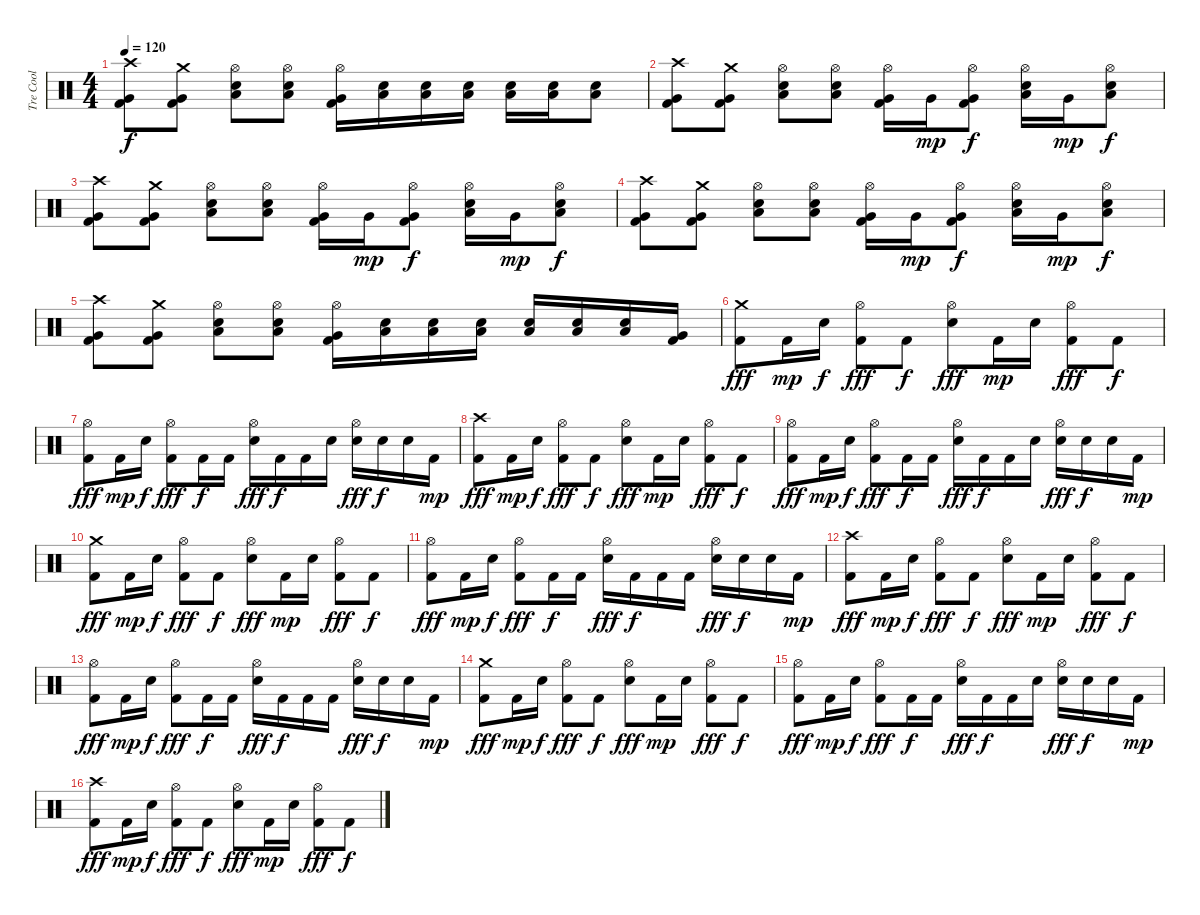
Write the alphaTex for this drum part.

\track ("Tre Cool" "Tre Cool") {instrument percussion}
\staff {score}
\articulation defaults
\ts (4 4)
\tempo 120
\clef neutral
\ks c
("Kick (hit) 2" "Very Low Tom (hit)" "Crash high (hit)").8{dy f} ("Kick (hit) 2" "Very Low Tom (hit)" "Crash medium (hit)").8 ("Snare (hit) 2" "Low Floor Tom (hit)" "Hi-Hat (open)").8 ("Snare (hit) 2" "Low Floor Tom (hit)" "Hi-Hat (open)").8 ("Kick (hit) 2" "Very Low Tom (hit)" "Hi-Hat (open)").16 ("Electric Snare (hit)" "Low Floor Tom (hit)").16 ("Electric Snare (hit)" "Low Floor Tom (hit)").16 ("Electric Snare (hit)" "Low Floor Tom (hit)").16 ("Electric Snare (hit)" "Low Floor Tom (hit)").16 ("Electric Snare (hit)" "Low Floor Tom (hit)").16 ("Electric Snare (hit)" "Low Floor Tom (hit)").8 |
("Kick (hit) 2" "Very Low Tom (hit)" "Crash high (hit)").8 ("Kick (hit) 2" "Very Low Tom (hit)" "Crash medium (hit)").8 ("Snare (hit) 2" "Low Floor Tom (hit)" "Hi-Hat (open)").8 ("Snare (hit) 2" "Low Floor Tom (hit)" "Hi-Hat (open)").8 ("Kick (hit) 2" "Very Low Tom (hit)" "Hi-Hat (open)").16 "Very Low Tom (hit)".16{dy mp} ("Kick (hit) 2" "Very Low Tom (hit)" "Hi-Hat (open)").8{dy f} ("Snare (hit) 2" "Low Floor Tom (hit)" "Hi-Hat (open)").16 "Very Low Tom (hit)".16{dy mp} ("Snare (hit) 2" "Low Floor Tom (hit)" "Hi-Hat (open)").8{dy f} |
("Kick (hit) 2" "Very Low Tom (hit)" "Crash high (hit)").8 ("Kick (hit) 2" "Very Low Tom (hit)" "Crash medium (hit)").8 ("Snare (hit) 2" "Low Floor Tom (hit)" "Hi-Hat (open)").8 ("Snare (hit) 2" "Low Floor Tom (hit)" "Hi-Hat (open)").8 ("Kick (hit) 2" "Very Low Tom (hit)" "Hi-Hat (open)").16 "Very Low Tom (hit)".16{dy mp} ("Kick (hit) 2" "Very Low Tom (hit)" "Hi-Hat (open)").8{dy f} ("Snare (hit) 2" "Low Floor Tom (hit)" "Hi-Hat (open)").16 "Very Low Tom (hit)".16{dy mp} ("Snare (hit) 2" "Low Floor Tom (hit)" "Hi-Hat (open)").8{dy f} |
("Kick (hit) 2" "Very Low Tom (hit)" "Crash high (hit)").8 ("Kick (hit) 2" "Very Low Tom (hit)" "Crash medium (hit)").8 ("Snare (hit) 2" "Low Floor Tom (hit)" "Hi-Hat (open)").8 ("Snare (hit) 2" "Low Floor Tom (hit)" "Hi-Hat (open)").8 ("Kick (hit) 2" "Very Low Tom (hit)" "Hi-Hat (open)").16 "Very Low Tom (hit)".16{dy mp} ("Kick (hit) 2" "Very Low Tom (hit)" "Hi-Hat (open)").8{dy f} ("Snare (hit) 2" "Low Floor Tom (hit)" "Hi-Hat (open)").16 "Very Low Tom (hit)".16{dy mp} ("Snare (hit) 2" "Low Floor Tom (hit)" "Hi-Hat (open)").8{dy f} |
("Kick (hit) 2" "Very Low Tom (hit)" "Crash high (hit)").8 ("Kick (hit) 2" "Very Low Tom (hit)" "Crash medium (hit)").8 ("Snare (hit) 2" "Low Floor Tom (hit)" "Hi-Hat (open)").8 ("Snare (hit) 2" "Low Floor Tom (hit)" "Hi-Hat (open)").8 ("Kick (hit) 2" "Very Low Tom (hit)" "Hi-Hat (open)").16 ("Electric Snare (hit)" "Low Floor Tom (hit)").16 ("Electric Snare (hit)" "Low Floor Tom (hit)").16 ("Electric Snare (hit)" "Low Floor Tom (hit)").16 ("Electric Snare (hit)" "Low Floor Tom (hit)").16 ("Electric Snare (hit)" "Low Floor Tom (hit)").16 ("Electric Snare (hit)" "Low Floor Tom (hit)").16 ("Kick (hit) 2" "Very Low Tom (hit)").16 |
("Kick (hit) 2" "Crash medium (hit)").8{dy fff} "Kick (hit) 2".16{dy mp} "Snare (hit) 2".16{dy f} ("Kick (hit) 2" "Hi-Hat (open)").8{dy fff} "Kick (hit) 2".8{dy f} ("Electric Snare (hit)" "Hi-Hat (open)").8{dy fff} "Kick (hit) 2".16{dy mp} "Snare (hit) 2".16 ("Kick (hit) 2" "Hi-Hat (open)").8{dy fff} "Kick (hit) 2".8{dy f} |
("Kick (hit) 2" "Hi-Hat (open)").8{dy fff} "Kick (hit) 2".16{dy mp} "Snare (hit) 2".16{dy f} ("Kick (hit) 2" "Hi-Hat (open)").8{dy fff} "Kick (hit) 2".16{dy f} "Kick (hit) 2".16 ("Electric Snare (hit)" "Hi-Hat (open)").16{dy fff} "Kick (hit) 2".16{dy f} "Kick (hit) 2".16 "Snare (hit) 2".16 ("Snare (hit) 2" "Hi-Hat (open)").16{dy fff} "Snare (hit) 2".16{dy f} "Snare (hit) 2".16 "Kick (hit) 2".16{dy mp} |
("Kick (hit) 2" "Crash high (hit)").8{dy fff} "Kick (hit) 2".16{dy mp} "Snare (hit) 2".16{dy f} ("Kick (hit) 2" "Hi-Hat (open)").8{dy fff} "Kick (hit) 2".8{dy f} ("Electric Snare (hit)" "Hi-Hat (open)").8{dy fff} "Kick (hit) 2".16{dy mp} "Snare (hit) 2".16 ("Kick (hit) 2" "Hi-Hat (open)").8{dy fff} "Kick (hit) 2".8{dy f} |
("Kick (hit) 2" "Hi-Hat (open)").8{dy fff} "Kick (hit) 2".16{dy mp} "Snare (hit) 2".16{dy f} ("Kick (hit) 2" "Hi-Hat (open)").8{dy fff} "Kick (hit) 2".16{dy f} "Kick (hit) 2".16 ("Electric Snare (hit)" "Hi-Hat (open)").16{dy fff} "Kick (hit) 2".16{dy f} "Kick (hit) 2".16 "Snare (hit) 2".16 ("Snare (hit) 2" "Hi-Hat (open)").16{dy fff} "Snare (hit) 2".16{dy f} "Snare (hit) 2".16 "Kick (hit) 2".16{dy mp} |
("Kick (hit) 2" "Crash medium (hit)").8{dy fff} "Kick (hit) 2".16{dy mp} "Snare (hit) 2".16{dy f} ("Kick (hit) 2" "Hi-Hat (open)").8{dy fff} "Kick (hit) 2".8{dy f} ("Electric Snare (hit)" "Hi-Hat (open)").8{dy fff} "Kick (hit) 2".16{dy mp} "Snare (hit) 2".16 ("Kick (hit) 2" "Hi-Hat (open)").8{dy fff} "Kick (hit) 2".8{dy f} |
("Kick (hit) 2" "Hi-Hat (open)").8{dy fff} "Kick (hit) 2".16{dy mp} "Snare (hit) 2".16{dy f} ("Kick (hit) 2" "Hi-Hat (open)").8{dy fff} "Kick (hit) 2".16{dy f} "Kick (hit) 2".16 ("Electric Snare (hit)" "Hi-Hat (open)").16{dy fff} "Kick (hit) 2".16{dy f} "Kick (hit) 2".16 "Kick (hit) 2".16 ("Snare (hit) 2" "Hi-Hat (open)").16{dy fff} "Snare (hit) 2".16{dy f} "Snare (hit) 2".16 "Kick (hit) 2".16{dy mp} |
("Kick (hit) 2" "Crash high (hit)").8{dy fff} "Kick (hit) 2".16{dy mp} "Snare (hit) 2".16{dy f} ("Kick (hit) 2" "Hi-Hat (open)").8{dy fff} "Kick (hit) 2".8{dy f} ("Electric Snare (hit)" "Hi-Hat (open)").8{dy fff} "Kick (hit) 2".16{dy mp} "Snare (hit) 2".16 ("Kick (hit) 2" "Hi-Hat (open)").8{dy fff} "Kick (hit) 2".8{dy f} |
("Kick (hit) 2" "Hi-Hat (open)").8{dy fff} "Kick (hit) 2".16{dy mp} "Snare (hit) 2".16{dy f} ("Kick (hit) 2" "Hi-Hat (open)").8{dy fff} "Kick (hit) 2".16{dy f} "Kick (hit) 2".16 ("Electric Snare (hit)" "Hi-Hat (open)").16{dy fff} "Kick (hit) 2".16{dy f} "Kick (hit) 2".16 "Kick (hit) 2".16 ("Snare (hit) 2" "Hi-Hat (open)").16{dy fff} "Snare (hit) 2".16{dy f} "Snare (hit) 2".16 "Kick (hit) 2".16{dy mp} |
("Kick (hit) 2" "Crash medium (hit)").8{dy fff} "Kick (hit) 2".16{dy mp} "Snare (hit) 2".16{dy f} ("Kick (hit) 2" "Hi-Hat (open)").8{dy fff} "Kick (hit) 2".8{dy f} ("Electric Snare (hit)" "Hi-Hat (open)").8{dy fff} "Kick (hit) 2".16{dy mp} "Snare (hit) 2".16 ("Kick (hit) 2" "Hi-Hat (open)").8{dy fff} "Kick (hit) 2".8{dy f} |
("Kick (hit) 2" "Hi-Hat (open)").8{dy fff} "Kick (hit) 2".16{dy mp} "Snare (hit) 2".16{dy f} ("Kick (hit) 2" "Hi-Hat (open)").8{dy fff} "Kick (hit) 2".16{dy f} "Kick (hit) 2".16 ("Electric Snare (hit)" "Hi-Hat (open)").16{dy fff} "Kick (hit) 2".16{dy f} "Kick (hit) 2".16 "Snare (hit) 2".16 ("Snare (hit) 2" "Hi-Hat (open)").16{dy fff} "Snare (hit) 2".16{dy f} "Snare (hit) 2".16 "Kick (hit) 2".16{dy mp} |
("Kick (hit) 2" "Crash high (hit)").8{dy fff} "Kick (hit) 2".16{dy mp} "Snare (hit) 2".16{dy f} ("Kick (hit) 2" "Hi-Hat (open)").8{dy fff} "Kick (hit) 2".8{dy f} ("Electric Snare (hit)" "Hi-Hat (open)").8{dy fff} "Kick (hit) 2".16{dy mp} "Snare (hit) 2".16 ("Kick (hit) 2" "Hi-Hat (open)").8{dy fff} "Kick (hit) 2".8{dy f}
